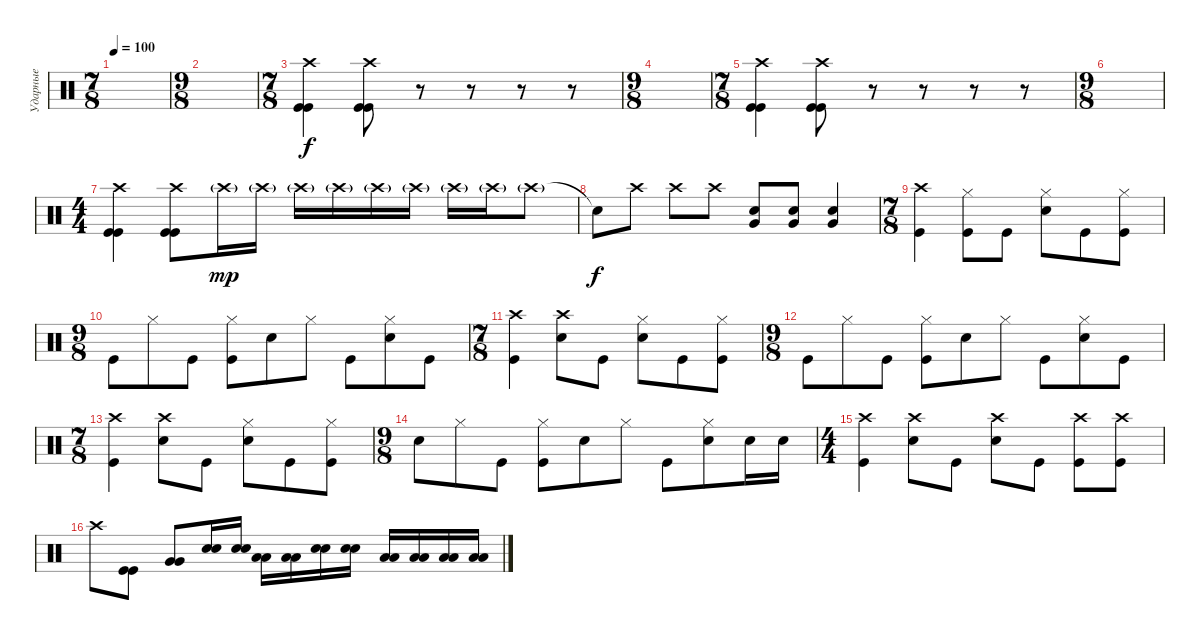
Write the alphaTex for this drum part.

\track ("Ударные" "Ударные") {instrument percussion}
\staff {score}
\articulation defaults
\ts (7 8)
\tempo 100
\clef neutral
\ks c
|
\ts (9 8)
|
\ts (7 8)
("Kick (hit)" "Crash high (hit)" "Kick (hit)").4 ("Kick (hit)" "Crash high (hit)" "Kick (hit)").8 r.8 r.8 r.8 r.8 |
\ts (9 8)
|
\ts (7 8)
("Kick (hit)" "Crash high (hit)" "Kick (hit)").4 ("Kick (hit)" "Crash high (hit)" "Kick (hit)").8 r.8 r.8 r.8 r.8 |
\ts (9 8)
|
\ts (4 4)
("Crash high (hit)" "Kick (hit)" "Kick (hit)").4 ("Crash high (hit)" "Kick (hit)" "Kick (hit)").8 "Crash high (hit)"{g}.16{dy mp} "Crash high (hit)"{g}.16 "Crash high (hit)"{g}.16 "Crash high (hit)"{g}.16 "Crash high (hit)"{g}.16 "Crash high (hit)"{g}.16 "Crash high (hit)"{g}.16 "Crash high (hit)"{g}.16 "Crash high (hit)"{g}.8 |
"Snare (hit)"{t}.8{dy f} "Crash high (hit)".8 "Crash high (hit)".8 "Crash high (hit)".8 ("Electric Snare (hit)" "Very Low Tom (hit)").8 ("Electric Snare (hit)" "Very Low Tom (hit)").8 ("Electric Snare (hit)" "Very Low Tom (hit)").4 |
\ts (7 8)
("Crash high (hit)" "Kick (hit)").4 ("Hi-Hat (closed)" "Kick (hit)").8 "Kick (hit)".8 ("Hi-Hat (closed)" "Electric Snare (hit)").8 "Kick (hit)".8 ("Hi-Hat (closed)" "Kick (hit)").8 |
\ts (9 8)
"Kick (hit)".8 "Hi-Hat (closed)".8 "Kick (hit)".8 ("Hi-Hat (closed)" "Kick (hit)").8 "Electric Snare (hit)".8 "Hi-Hat (closed)".8 "Kick (hit)".8 ("Hi-Hat (closed)" "Electric Snare (hit)").8 "Kick (hit)".8 |
\ts (7 8)
("Crash high (hit)" "Kick (hit)").4 ("Crash high (hit)" "Electric Snare (hit)").8 "Kick (hit)".8 ("Hi-Hat (closed)" "Electric Snare (hit)").8 "Kick (hit)".8 ("Hi-Hat (closed)" "Kick (hit)").8 |
\ts (9 8)
"Kick (hit)".8 "Hi-Hat (closed)".8 "Kick (hit)".8 ("Hi-Hat (closed)" "Kick (hit)").8 "Electric Snare (hit)".8 "Hi-Hat (closed)".8 "Kick (hit)".8 ("Hi-Hat (closed)" "Electric Snare (hit)").8 "Kick (hit)".8 |
\ts (7 8)
("Crash high (hit)" "Kick (hit)").4 ("Crash high (hit)" "Electric Snare (hit)").8 "Kick (hit)".8 ("Hi-Hat (closed)" "Electric Snare (hit)").8 "Kick (hit)".8 ("Hi-Hat (closed)" "Kick (hit)").8 |
\ts (9 8)
"Electric Snare (hit)".8 "Hi-Hat (closed)".8 "Kick (hit)".8 ("Hi-Hat (closed)" "Kick (hit)").8 "Electric Snare (hit)".8 "Hi-Hat (closed)".8 "Kick (hit)".8 ("Hi-Hat (closed)" "Electric Snare (hit)").8 "Electric Snare (hit)".16 "Electric Snare (hit)".16 |
\ts (4 4)
("Crash high (hit)" "Kick (hit)").4 ("Crash high (hit)" "Electric Snare (hit)").8 "Kick (hit)".8 ("Crash high (hit)" "Electric Snare (hit)").8 "Kick (hit)".8 ("Crash high (hit)" "Kick (hit)").8 ("Crash high (hit)" "Kick (hit)").8 |
"Crash high (hit)".8 ("Kick (hit)" "Kick (hit)").8 ("Very Low Tom (hit)" "Very Low Tom (hit)").8 ("Electric Snare (hit)" "Electric Snare (hit)").16 ("Electric Snare (hit)" "Electric Snare (hit)").16 ("Low Tom (hit)" "Low Tom (hit)").16 ("Low Tom (hit)" "Low Tom (hit)").16 ("Electric Snare (hit)" "Electric Snare (hit)").16 ("Electric Snare (hit)" "Electric Snare (hit)").16 ("Low Tom (hit)" "Low Tom (hit)").16 ("Low Tom (hit)" "Low Tom (hit)").16 ("Low Floor Tom (hit)" "Low Floor Tom (hit)").16 ("Low Floor Tom (hit)" "Low Floor Tom (hit)").16
